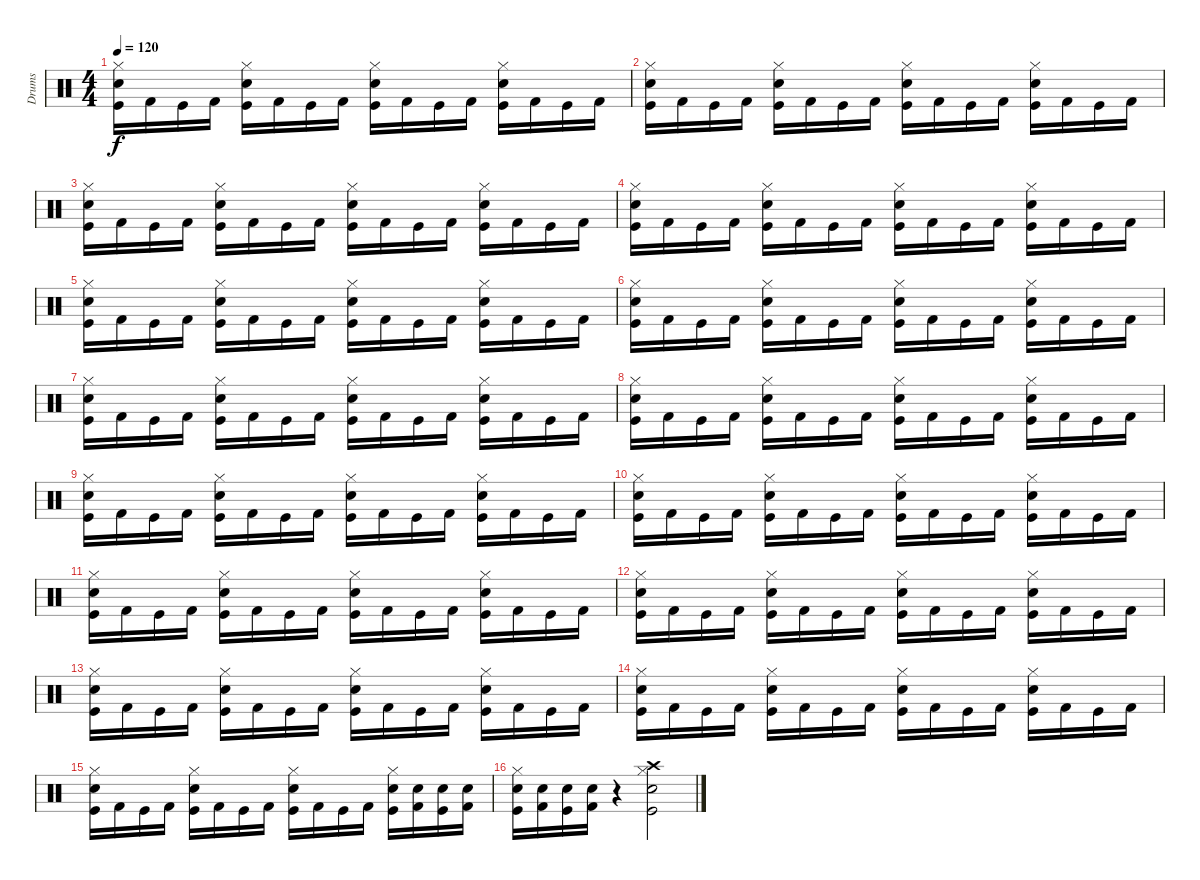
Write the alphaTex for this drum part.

\track ("Drums" "Drums") {instrument percussion}
\staff {score}
\articulation defaults
\ts (4 4)
\tempo 120
\clef neutral
\ks c
("Hi-Hat (closed)" "Snare (hit) 2" "Kick (hit)").16{dy f} "Kick (hit) 2".16 "Kick (hit)".16 "Kick (hit) 2".16 ("Hi-Hat (closed)" "Snare (hit) 2" "Kick (hit)").16 "Kick (hit) 2".16 "Kick (hit)".16 "Kick (hit) 2".16 ("Hi-Hat (closed)" "Snare (hit) 2" "Kick (hit)").16 "Kick (hit) 2".16 "Kick (hit)".16 "Kick (hit) 2".16 ("Hi-Hat (closed)" "Snare (hit) 2" "Kick (hit)").16 "Kick (hit) 2".16 "Kick (hit)".16 "Kick (hit) 2".16 |
("Hi-Hat (closed)" "Snare (hit) 2" "Kick (hit)").16 "Kick (hit) 2".16 "Kick (hit)".16 "Kick (hit) 2".16 ("Hi-Hat (closed)" "Snare (hit) 2" "Kick (hit)").16 "Kick (hit) 2".16 "Kick (hit)".16 "Kick (hit) 2".16 ("Hi-Hat (closed)" "Snare (hit) 2" "Kick (hit)").16 "Kick (hit) 2".16 "Kick (hit)".16 "Kick (hit) 2".16 ("Hi-Hat (closed)" "Snare (hit) 2" "Kick (hit)").16 "Kick (hit) 2".16 "Kick (hit)".16 "Kick (hit) 2".16 |
("Hi-Hat (closed)" "Snare (hit) 2" "Kick (hit)").16 "Kick (hit) 2".16 "Kick (hit)".16 "Kick (hit) 2".16 ("Hi-Hat (closed)" "Snare (hit) 2" "Kick (hit)").16 "Kick (hit) 2".16 "Kick (hit)".16 "Kick (hit) 2".16 ("Hi-Hat (closed)" "Snare (hit) 2" "Kick (hit)").16 "Kick (hit) 2".16 "Kick (hit)".16 "Kick (hit) 2".16 ("Hi-Hat (closed)" "Snare (hit) 2" "Kick (hit)").16 "Kick (hit) 2".16 "Kick (hit)".16 "Kick (hit) 2".16 |
("Hi-Hat (closed)" "Snare (hit) 2" "Kick (hit)").16 "Kick (hit) 2".16 "Kick (hit)".16 "Kick (hit) 2".16 ("Hi-Hat (closed)" "Snare (hit) 2" "Kick (hit)").16 "Kick (hit) 2".16 "Kick (hit)".16 "Kick (hit) 2".16 ("Hi-Hat (closed)" "Snare (hit) 2" "Kick (hit)").16 "Kick (hit) 2".16 "Kick (hit)".16 "Kick (hit) 2".16 ("Hi-Hat (closed)" "Snare (hit) 2" "Kick (hit)").16 "Kick (hit) 2".16 "Kick (hit)".16 "Kick (hit) 2".16 |
("Hi-Hat (closed)" "Snare (hit) 2" "Kick (hit)").16 "Kick (hit) 2".16 "Kick (hit)".16 "Kick (hit) 2".16 ("Hi-Hat (closed)" "Snare (hit) 2" "Kick (hit)").16 "Kick (hit) 2".16 "Kick (hit)".16 "Kick (hit) 2".16 ("Hi-Hat (closed)" "Snare (hit) 2" "Kick (hit)").16 "Kick (hit) 2".16 "Kick (hit)".16 "Kick (hit) 2".16 ("Hi-Hat (closed)" "Snare (hit) 2" "Kick (hit)").16 "Kick (hit) 2".16 "Kick (hit)".16 "Kick (hit) 2".16 |
("Hi-Hat (closed)" "Snare (hit) 2" "Kick (hit)").16 "Kick (hit) 2".16 "Kick (hit)".16 "Kick (hit) 2".16 ("Hi-Hat (closed)" "Snare (hit) 2" "Kick (hit)").16 "Kick (hit) 2".16 "Kick (hit)".16 "Kick (hit) 2".16 ("Hi-Hat (closed)" "Snare (hit) 2" "Kick (hit)").16 "Kick (hit) 2".16 "Kick (hit)".16 "Kick (hit) 2".16 ("Hi-Hat (closed)" "Snare (hit) 2" "Kick (hit)").16 "Kick (hit) 2".16 "Kick (hit)".16 "Kick (hit) 2".16 |
("Hi-Hat (closed)" "Snare (hit) 2" "Kick (hit)").16 "Kick (hit) 2".16 "Kick (hit)".16 "Kick (hit) 2".16 ("Hi-Hat (closed)" "Snare (hit) 2" "Kick (hit)").16 "Kick (hit) 2".16 "Kick (hit)".16 "Kick (hit) 2".16 ("Hi-Hat (closed)" "Snare (hit) 2" "Kick (hit)").16 "Kick (hit) 2".16 "Kick (hit)".16 "Kick (hit) 2".16 ("Hi-Hat (closed)" "Snare (hit) 2" "Kick (hit)").16 "Kick (hit) 2".16 "Kick (hit)".16 "Kick (hit) 2".16 |
("Hi-Hat (closed)" "Snare (hit) 2" "Kick (hit)").16 "Kick (hit) 2".16 "Kick (hit)".16 "Kick (hit) 2".16 ("Hi-Hat (closed)" "Snare (hit) 2" "Kick (hit)").16 "Kick (hit) 2".16 "Kick (hit)".16 "Kick (hit) 2".16 ("Hi-Hat (closed)" "Snare (hit) 2" "Kick (hit)").16 "Kick (hit) 2".16 "Kick (hit)".16 "Kick (hit) 2".16 ("Hi-Hat (closed)" "Snare (hit) 2" "Kick (hit)").16 "Kick (hit) 2".16 "Kick (hit)".16 "Kick (hit) 2".16 |
("Hi-Hat (closed)" "Snare (hit) 2" "Kick (hit)").16 "Kick (hit) 2".16 "Kick (hit)".16 "Kick (hit) 2".16 ("Hi-Hat (closed)" "Snare (hit) 2" "Kick (hit)").16 "Kick (hit) 2".16 "Kick (hit)".16 "Kick (hit) 2".16 ("Hi-Hat (closed)" "Snare (hit) 2" "Kick (hit)").16 "Kick (hit) 2".16 "Kick (hit)".16 "Kick (hit) 2".16 ("Hi-Hat (closed)" "Snare (hit) 2" "Kick (hit)").16 "Kick (hit) 2".16 "Kick (hit)".16 "Kick (hit) 2".16 |
("Hi-Hat (closed)" "Snare (hit) 2" "Kick (hit)").16 "Kick (hit) 2".16 "Kick (hit)".16 "Kick (hit) 2".16 ("Hi-Hat (closed)" "Snare (hit) 2" "Kick (hit)").16 "Kick (hit) 2".16 "Kick (hit)".16 "Kick (hit) 2".16 ("Hi-Hat (closed)" "Snare (hit) 2" "Kick (hit)").16 "Kick (hit) 2".16 "Kick (hit)".16 "Kick (hit) 2".16 ("Hi-Hat (closed)" "Snare (hit) 2" "Kick (hit)").16 "Kick (hit) 2".16 "Kick (hit)".16 "Kick (hit) 2".16 |
("Hi-Hat (closed)" "Snare (hit) 2" "Kick (hit)").16 "Kick (hit) 2".16 "Kick (hit)".16 "Kick (hit) 2".16 ("Hi-Hat (closed)" "Snare (hit) 2" "Kick (hit)").16 "Kick (hit) 2".16 "Kick (hit)".16 "Kick (hit) 2".16 ("Hi-Hat (closed)" "Snare (hit) 2" "Kick (hit)").16 "Kick (hit) 2".16 "Kick (hit)".16 "Kick (hit) 2".16 ("Hi-Hat (closed)" "Snare (hit) 2" "Kick (hit)").16 "Kick (hit) 2".16 "Kick (hit)".16 "Kick (hit) 2".16 |
("Hi-Hat (closed)" "Snare (hit) 2" "Kick (hit)").16 "Kick (hit) 2".16 "Kick (hit)".16 "Kick (hit) 2".16 ("Hi-Hat (closed)" "Snare (hit) 2" "Kick (hit)").16 "Kick (hit) 2".16 "Kick (hit)".16 "Kick (hit) 2".16 ("Hi-Hat (closed)" "Snare (hit) 2" "Kick (hit)").16 "Kick (hit) 2".16 "Kick (hit)".16 "Kick (hit) 2".16 ("Hi-Hat (closed)" "Snare (hit) 2" "Kick (hit)").16 "Kick (hit) 2".16 "Kick (hit)".16 "Kick (hit) 2".16 |
("Hi-Hat (closed)" "Snare (hit) 2" "Kick (hit)").16 "Kick (hit) 2".16 "Kick (hit)".16 "Kick (hit) 2".16 ("Hi-Hat (closed)" "Snare (hit) 2" "Kick (hit)").16 "Kick (hit) 2".16 "Kick (hit)".16 "Kick (hit) 2".16 ("Hi-Hat (closed)" "Snare (hit) 2" "Kick (hit)").16 "Kick (hit) 2".16 "Kick (hit)".16 "Kick (hit) 2".16 ("Hi-Hat (closed)" "Snare (hit) 2" "Kick (hit)").16 "Kick (hit) 2".16 "Kick (hit)".16 "Kick (hit) 2".16 |
("Hi-Hat (closed)" "Snare (hit) 2" "Kick (hit)").16 "Kick (hit) 2".16 "Kick (hit)".16 "Kick (hit) 2".16 ("Hi-Hat (closed)" "Snare (hit) 2" "Kick (hit)").16 "Kick (hit) 2".16 "Kick (hit)".16 "Kick (hit) 2".16 ("Hi-Hat (closed)" "Snare (hit) 2" "Kick (hit)").16 "Kick (hit) 2".16 "Kick (hit)".16 "Kick (hit) 2".16 ("Hi-Hat (closed)" "Snare (hit) 2" "Kick (hit)").16 "Kick (hit) 2".16 "Kick (hit)".16 "Kick (hit) 2".16 |
("Hi-Hat (closed)" "Snare (hit) 2" "Kick (hit)").16 "Kick (hit) 2".16 "Kick (hit)".16 "Kick (hit) 2".16 ("Hi-Hat (closed)" "Snare (hit) 2" "Kick (hit)").16 "Kick (hit) 2".16 "Kick (hit)".16 "Kick (hit) 2".16 ("Hi-Hat (closed)" "Snare (hit) 2" "Kick (hit)").16 "Kick (hit) 2".16 "Kick (hit)".16 "Kick (hit) 2".16 ("Hi-Hat (closed)" "Snare (hit) 2" "Kick (hit)").16 ("Snare (hit) 2" "Kick (hit) 2").16 ("Snare (hit) 2" "Kick (hit)").16 ("Snare (hit) 2" "Kick (hit) 2").16 |
("Hi-Hat (closed)" "Snare (hit) 2" "Kick (hit)").16 ("Snare (hit) 2" "Kick (hit) 2").16 ("Snare (hit) 2" "Kick (hit)").16 ("Snare (hit) 2" "Kick (hit) 2").16 r.4 ("Hi-Hat (closed)" "Crash high (hit)" "Snare (hit) 2" "Kick (hit)").2
